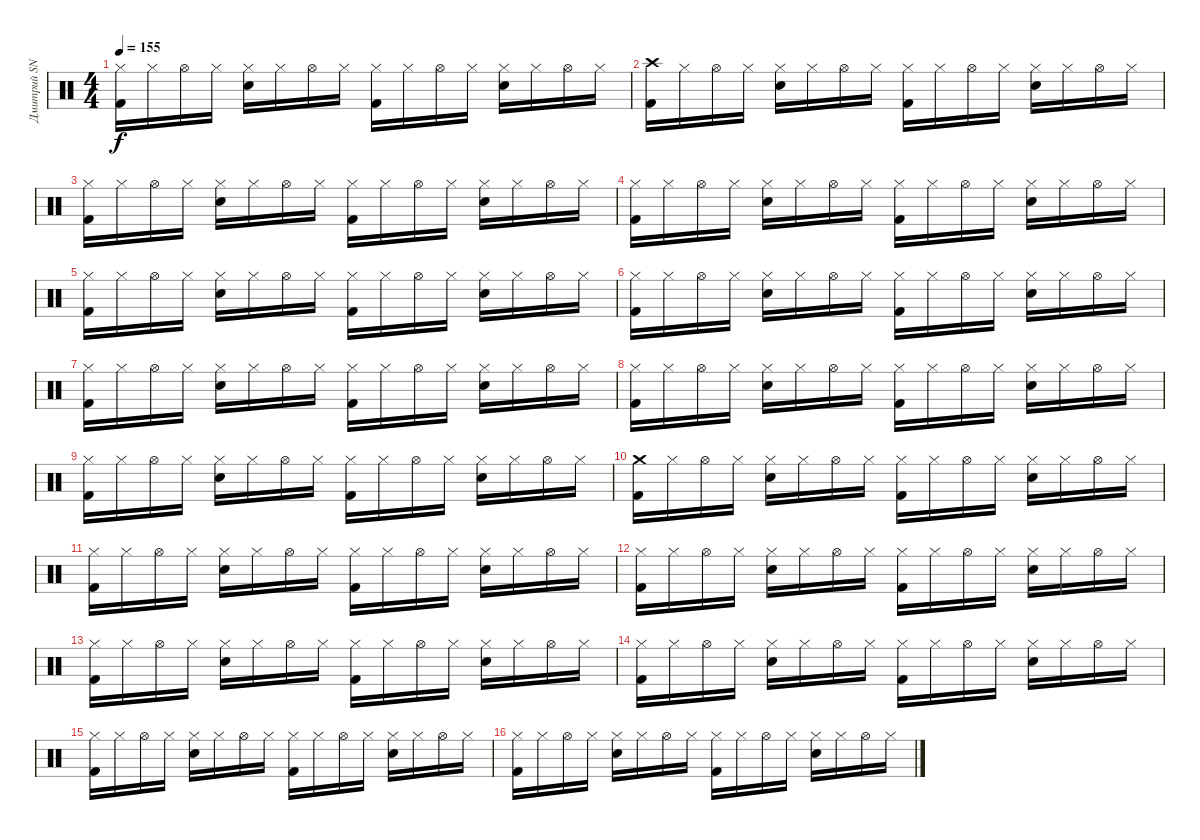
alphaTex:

\track ("Дмитрий SNAKE Хакимов" "Дмитрий SN") {instrument percussion}
\staff {score}
\articulation defaults
\ts (4 4)
\tempo 155
\clef neutral
\ks c
("Hi-Hat (closed)" "Kick (hit) 2").16{dy f} "Hi-Hat (closed)".16 "Hi-Hat (open)".16 "Hi-Hat (closed)".16 ("Hi-Hat (closed)" "Snare (hit) 2").16 "Hi-Hat (closed)".16 "Hi-Hat (open)".16 "Hi-Hat (closed)".16 ("Hi-Hat (closed)" "Kick (hit) 2").16 "Hi-Hat (closed)".16 "Hi-Hat (open)".16 "Hi-Hat (closed)".16 ("Hi-Hat (closed)" "Snare (hit) 2").16 "Hi-Hat (closed)".16 "Hi-Hat (open)".16 "Hi-Hat (closed)".16 |
("Crash high (hit)" "Kick (hit) 2").16 "Hi-Hat (closed)".16 "Hi-Hat (open)".16 "Hi-Hat (closed)".16 ("Hi-Hat (closed)" "Snare (hit) 2").16 "Hi-Hat (closed)".16 "Hi-Hat (open)".16 "Hi-Hat (closed)".16 ("Hi-Hat (closed)" "Kick (hit) 2").16 "Hi-Hat (closed)".16 "Hi-Hat (open)".16 "Hi-Hat (closed)".16 ("Hi-Hat (closed)" "Snare (hit) 2").16 "Hi-Hat (closed)".16 "Hi-Hat (open)".16 "Hi-Hat (closed)".16 |
("Hi-Hat (closed)" "Kick (hit) 2").16 "Hi-Hat (closed)".16 "Hi-Hat (open)".16 "Hi-Hat (closed)".16 ("Hi-Hat (closed)" "Snare (hit) 2").16 "Hi-Hat (closed)".16 "Hi-Hat (open)".16 "Hi-Hat (closed)".16 ("Hi-Hat (closed)" "Kick (hit) 2").16 "Hi-Hat (closed)".16 "Hi-Hat (open)".16 "Hi-Hat (closed)".16 ("Hi-Hat (closed)" "Snare (hit) 2").16 "Hi-Hat (closed)".16 "Hi-Hat (open)".16 "Hi-Hat (closed)".16 |
("Hi-Hat (closed)" "Kick (hit) 2").16 "Hi-Hat (closed)".16 "Hi-Hat (open)".16 "Hi-Hat (closed)".16 ("Hi-Hat (closed)" "Snare (hit) 2").16 "Hi-Hat (closed)".16 "Hi-Hat (open)".16 "Hi-Hat (closed)".16 ("Hi-Hat (closed)" "Kick (hit) 2").16 "Hi-Hat (closed)".16 "Hi-Hat (open)".16 "Hi-Hat (closed)".16 ("Hi-Hat (closed)" "Snare (hit) 2").16 "Hi-Hat (closed)".16 "Hi-Hat (open)".16 "Hi-Hat (closed)".16 |
("Hi-Hat (closed)" "Kick (hit) 2").16 "Hi-Hat (closed)".16 "Hi-Hat (open)".16 "Hi-Hat (closed)".16 ("Hi-Hat (closed)" "Snare (hit) 2").16 "Hi-Hat (closed)".16 "Hi-Hat (open)".16 "Hi-Hat (closed)".16 ("Hi-Hat (closed)" "Kick (hit) 2").16 "Hi-Hat (closed)".16 "Hi-Hat (open)".16 "Hi-Hat (closed)".16 ("Hi-Hat (closed)" "Snare (hit) 2").16 "Hi-Hat (closed)".16 "Hi-Hat (open)".16 "Hi-Hat (closed)".16 |
("Hi-Hat (closed)" "Kick (hit) 2").16 "Hi-Hat (closed)".16 "Hi-Hat (open)".16 "Hi-Hat (closed)".16 ("Hi-Hat (closed)" "Snare (hit) 2").16 "Hi-Hat (closed)".16 "Hi-Hat (open)".16 "Hi-Hat (closed)".16 ("Hi-Hat (closed)" "Kick (hit) 2").16 "Hi-Hat (closed)".16 "Hi-Hat (open)".16 "Hi-Hat (closed)".16 ("Hi-Hat (closed)" "Snare (hit) 2").16 "Hi-Hat (closed)".16 "Hi-Hat (open)".16 "Hi-Hat (closed)".16 |
("Hi-Hat (closed)" "Kick (hit) 2").16 "Hi-Hat (closed)".16 "Hi-Hat (open)".16 "Hi-Hat (closed)".16 ("Hi-Hat (closed)" "Snare (hit) 2").16 "Hi-Hat (closed)".16 "Hi-Hat (open)".16 "Hi-Hat (closed)".16 ("Hi-Hat (closed)" "Kick (hit) 2").16 "Hi-Hat (closed)".16 "Hi-Hat (open)".16 "Hi-Hat (closed)".16 ("Hi-Hat (closed)" "Snare (hit) 2").16 "Hi-Hat (closed)".16 "Hi-Hat (open)".16 "Hi-Hat (closed)".16 |
("Hi-Hat (closed)" "Kick (hit) 2").16 "Hi-Hat (closed)".16 "Hi-Hat (open)".16 "Hi-Hat (closed)".16 ("Hi-Hat (closed)" "Snare (hit) 2").16 "Hi-Hat (closed)".16 "Hi-Hat (open)".16 "Hi-Hat (closed)".16 ("Hi-Hat (closed)" "Kick (hit) 2").16 "Hi-Hat (closed)".16 "Hi-Hat (open)".16 "Hi-Hat (closed)".16 ("Hi-Hat (closed)" "Snare (hit) 2").16 "Hi-Hat (closed)".16 "Hi-Hat (open)".16 "Hi-Hat (closed)".16 |
("Hi-Hat (closed)" "Kick (hit) 2").16 "Hi-Hat (closed)".16 "Hi-Hat (open)".16 "Hi-Hat (closed)".16 ("Hi-Hat (closed)" "Snare (hit) 2").16 "Hi-Hat (closed)".16 "Hi-Hat (open)".16 "Hi-Hat (closed)".16 ("Hi-Hat (closed)" "Kick (hit) 2").16 "Hi-Hat (closed)".16 "Hi-Hat (open)".16 "Hi-Hat (closed)".16 ("Hi-Hat (closed)" "Snare (hit) 2").16 "Hi-Hat (closed)".16 "Hi-Hat (open)".16 "Hi-Hat (closed)".16 |
("Crash medium (hit)" "Kick (hit) 2").16 "Hi-Hat (closed)".16 "Hi-Hat (open)".16 "Hi-Hat (closed)".16 ("Hi-Hat (closed)" "Snare (hit) 2").16 "Hi-Hat (closed)".16 "Hi-Hat (open)".16 "Hi-Hat (closed)".16 ("Hi-Hat (closed)" "Kick (hit) 2").16 "Hi-Hat (closed)".16 "Hi-Hat (open)".16 "Hi-Hat (closed)".16 ("Hi-Hat (closed)" "Snare (hit) 2").16 "Hi-Hat (closed)".16 "Hi-Hat (open)".16 "Hi-Hat (closed)".16 |
("Hi-Hat (closed)" "Kick (hit) 2").16 "Hi-Hat (closed)".16 "Hi-Hat (open)".16 "Hi-Hat (closed)".16 ("Hi-Hat (closed)" "Snare (hit) 2").16 "Hi-Hat (closed)".16 "Hi-Hat (open)".16 "Hi-Hat (closed)".16 ("Hi-Hat (closed)" "Kick (hit) 2").16 "Hi-Hat (closed)".16 "Hi-Hat (open)".16 "Hi-Hat (closed)".16 ("Hi-Hat (closed)" "Snare (hit) 2").16 "Hi-Hat (closed)".16 "Hi-Hat (open)".16 "Hi-Hat (closed)".16 |
("Hi-Hat (closed)" "Kick (hit) 2").16 "Hi-Hat (closed)".16 "Hi-Hat (open)".16 "Hi-Hat (closed)".16 ("Hi-Hat (closed)" "Snare (hit) 2").16 "Hi-Hat (closed)".16 "Hi-Hat (open)".16 "Hi-Hat (closed)".16 ("Hi-Hat (closed)" "Kick (hit) 2").16 "Hi-Hat (closed)".16 "Hi-Hat (open)".16 "Hi-Hat (closed)".16 ("Hi-Hat (closed)" "Snare (hit) 2").16 "Hi-Hat (closed)".16 "Hi-Hat (open)".16 "Hi-Hat (closed)".16 |
("Hi-Hat (closed)" "Kick (hit) 2").16 "Hi-Hat (closed)".16 "Hi-Hat (open)".16 "Hi-Hat (closed)".16 ("Hi-Hat (closed)" "Snare (hit) 2").16 "Hi-Hat (closed)".16 "Hi-Hat (open)".16 "Hi-Hat (closed)".16 ("Hi-Hat (closed)" "Kick (hit) 2").16 "Hi-Hat (closed)".16 "Hi-Hat (open)".16 "Hi-Hat (closed)".16 ("Hi-Hat (closed)" "Snare (hit) 2").16 "Hi-Hat (closed)".16 "Hi-Hat (open)".16 "Hi-Hat (closed)".16 |
("Hi-Hat (closed)" "Kick (hit) 2").16 "Hi-Hat (closed)".16 "Hi-Hat (open)".16 "Hi-Hat (closed)".16 ("Hi-Hat (closed)" "Snare (hit) 2").16 "Hi-Hat (closed)".16 "Hi-Hat (open)".16 "Hi-Hat (closed)".16 ("Hi-Hat (closed)" "Kick (hit) 2").16 "Hi-Hat (closed)".16 "Hi-Hat (open)".16 "Hi-Hat (closed)".16 ("Hi-Hat (closed)" "Snare (hit) 2").16 "Hi-Hat (closed)".16 "Hi-Hat (open)".16 "Hi-Hat (closed)".16 |
("Hi-Hat (closed)" "Kick (hit) 2").16 "Hi-Hat (closed)".16 "Hi-Hat (open)".16 "Hi-Hat (closed)".16 ("Hi-Hat (closed)" "Snare (hit) 2").16 "Hi-Hat (closed)".16 "Hi-Hat (open)".16 "Hi-Hat (closed)".16 ("Hi-Hat (closed)" "Kick (hit) 2").16 "Hi-Hat (closed)".16 "Hi-Hat (open)".16 "Hi-Hat (closed)".16 ("Hi-Hat (closed)" "Snare (hit) 2").16 "Hi-Hat (closed)".16 "Hi-Hat (open)".16 "Hi-Hat (closed)".16 |
("Hi-Hat (closed)" "Kick (hit) 2").16 "Hi-Hat (closed)".16 "Hi-Hat (open)".16 "Hi-Hat (closed)".16 ("Hi-Hat (closed)" "Snare (hit) 2").16 "Hi-Hat (closed)".16 "Hi-Hat (open)".16 "Hi-Hat (closed)".16 ("Hi-Hat (closed)" "Kick (hit) 2").16 "Hi-Hat (closed)".16 "Hi-Hat (open)".16 "Hi-Hat (closed)".16 ("Hi-Hat (closed)" "Snare (hit) 2").16 "Hi-Hat (closed)".16 "Hi-Hat (open)".16 "Hi-Hat (closed)".16
